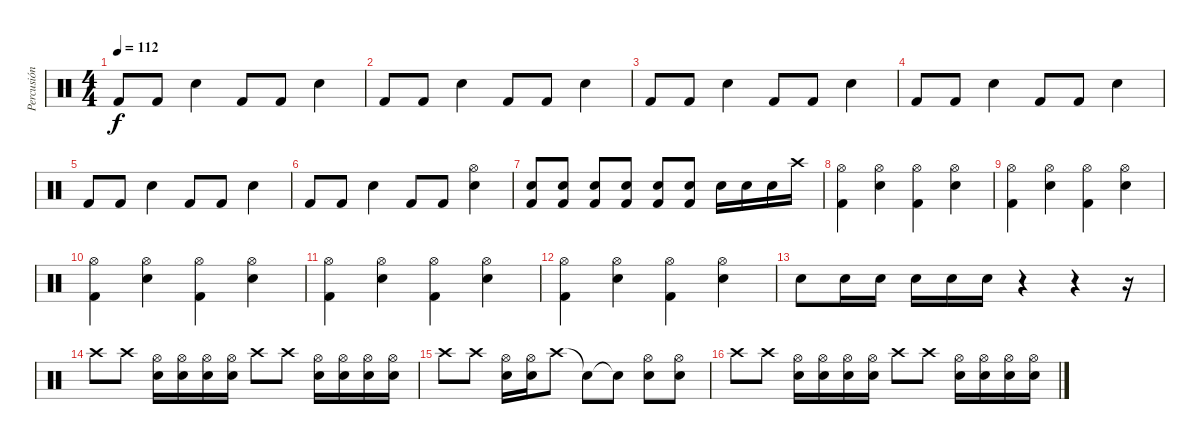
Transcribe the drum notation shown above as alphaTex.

\track ("Percusión" "Percusión") {instrument percussion}
\staff {score}
\articulation defaults
\ts (4 4)
\tempo 112
\clef neutral
\ks c "Kick (hit) 2".8{dy f} "Kick (hit) 2".8 "Snare (hit) 2".4 "Kick (hit) 2".8 "Kick (hit) 2".8 "Snare (hit) 2".4
|
"Kick (hit) 2".8 "Kick (hit) 2".8 "Snare (hit) 2".4 "Kick (hit) 2".8 "Kick (hit) 2".8 "Snare (hit) 2".4 |
"Kick (hit) 2".8 "Kick (hit) 2".8 "Snare (hit) 2".4 "Kick (hit) 2".8 "Kick (hit) 2".8 "Snare (hit) 2".4 |
"Kick (hit) 2".8 "Kick (hit) 2".8 "Snare (hit) 2".4 "Kick (hit) 2".8 "Kick (hit) 2".8 "Snare (hit) 2".4 |
"Kick (hit) 2".8 "Kick (hit) 2".8 "Snare (hit) 2".4 "Kick (hit) 2".8 "Kick (hit) 2".8 "Snare (hit) 2".4 |
"Kick (hit) 2".8 "Kick (hit) 2".8 "Snare (hit) 2".4 "Kick (hit) 2".8 "Kick (hit) 2".8 ("Hi-Hat (open)" "Snare (hit) 2").4 |
("Kick (hit) 2" "Snare (hit) 2").8 ("Kick (hit) 2" "Snare (hit) 2").8 ("Kick (hit) 2" "Snare (hit) 2").8 ("Kick (hit) 2" "Snare (hit) 2").8 ("Kick (hit) 2" "Snare (hit) 2").8 ("Kick (hit) 2" "Snare (hit) 2").8 "Snare (hit) 2".16 "Snare (hit) 2".16 "Snare (hit) 2".16 "Crash high (hit)".16 |
("Hi-Hat (open)" "Kick (hit) 2").4 ("Hi-Hat (open)" "Snare (hit) 2").4 ("Hi-Hat (open)" "Kick (hit) 2").4 ("Hi-Hat (open)" "Snare (hit) 2").4 |
("Hi-Hat (open)" "Kick (hit) 2").4 ("Hi-Hat (open)" "Snare (hit) 2").4 ("Hi-Hat (open)" "Kick (hit) 2").4 ("Hi-Hat (open)" "Snare (hit) 2").4 |
("Hi-Hat (open)" "Kick (hit) 2").4 ("Hi-Hat (open)" "Snare (hit) 2").4 ("Hi-Hat (open)" "Kick (hit) 2").4 ("Hi-Hat (open)" "Snare (hit) 2").4 |
("Hi-Hat (open)" "Kick (hit) 2").4 ("Hi-Hat (open)" "Snare (hit) 2").4 ("Hi-Hat (open)" "Kick (hit) 2").4 ("Hi-Hat (open)" "Snare (hit) 2").4 |
("Hi-Hat (open)" "Kick (hit) 2").4 ("Hi-Hat (open)" "Snare (hit) 2").4 ("Hi-Hat (open)" "Kick (hit) 2").4 ("Hi-Hat (open)" "Snare (hit) 2").4 |
"Snare (hit) 2".8 "Snare (hit) 2".16 "Snare (hit) 2".16 "Snare (hit) 2".16 "Snare (hit) 2".16 "Snare (hit) 2".16 r.4 r.4 r.16 |
"Crash high (hit)".8 "Crash high (hit)".8 ("Hi-Hat (open)" "Snare (hit) 2").16 ("Hi-Hat (open)" "Snare (hit) 2").16 ("Hi-Hat (open)" "Snare (hit) 2").16 ("Hi-Hat (open)" "Snare (hit) 2").16 "Crash high (hit)".8 "Crash high (hit)".8 ("Hi-Hat (open)" "Snare (hit) 2").16 ("Hi-Hat (open)" "Snare (hit) 2").16 ("Hi-Hat (open)" "Snare (hit) 2").16 ("Hi-Hat (open)" "Snare (hit) 2").16 |
"Crash high (hit)".8 "Crash high (hit)".8 ("Hi-Hat (open)" "Snare (hit) 2").16 ("Hi-Hat (open)" "Snare (hit) 2").16 "Crash high (hit)".8 "Snare (hit)"{t}.8 "Snare (hit)"{t}.8 ("Hi-Hat (open)" "Snare (hit) 2").8 ("Hi-Hat (open)" "Snare (hit) 2").8 |
"Crash high (hit)".8 "Crash high (hit)".8 ("Hi-Hat (open)" "Snare (hit) 2").16 ("Hi-Hat (open)" "Snare (hit) 2").16 ("Hi-Hat (open)" "Snare (hit) 2").16 ("Hi-Hat (open)" "Snare (hit) 2").16 "Crash high (hit)".8 "Crash high (hit)".8 ("Hi-Hat (open)" "Snare (hit) 2").16 ("Hi-Hat (open)" "Snare (hit) 2").16 ("Hi-Hat (open)" "Snare (hit) 2").16 ("Hi-Hat (open)" "Snare (hit) 2").16
